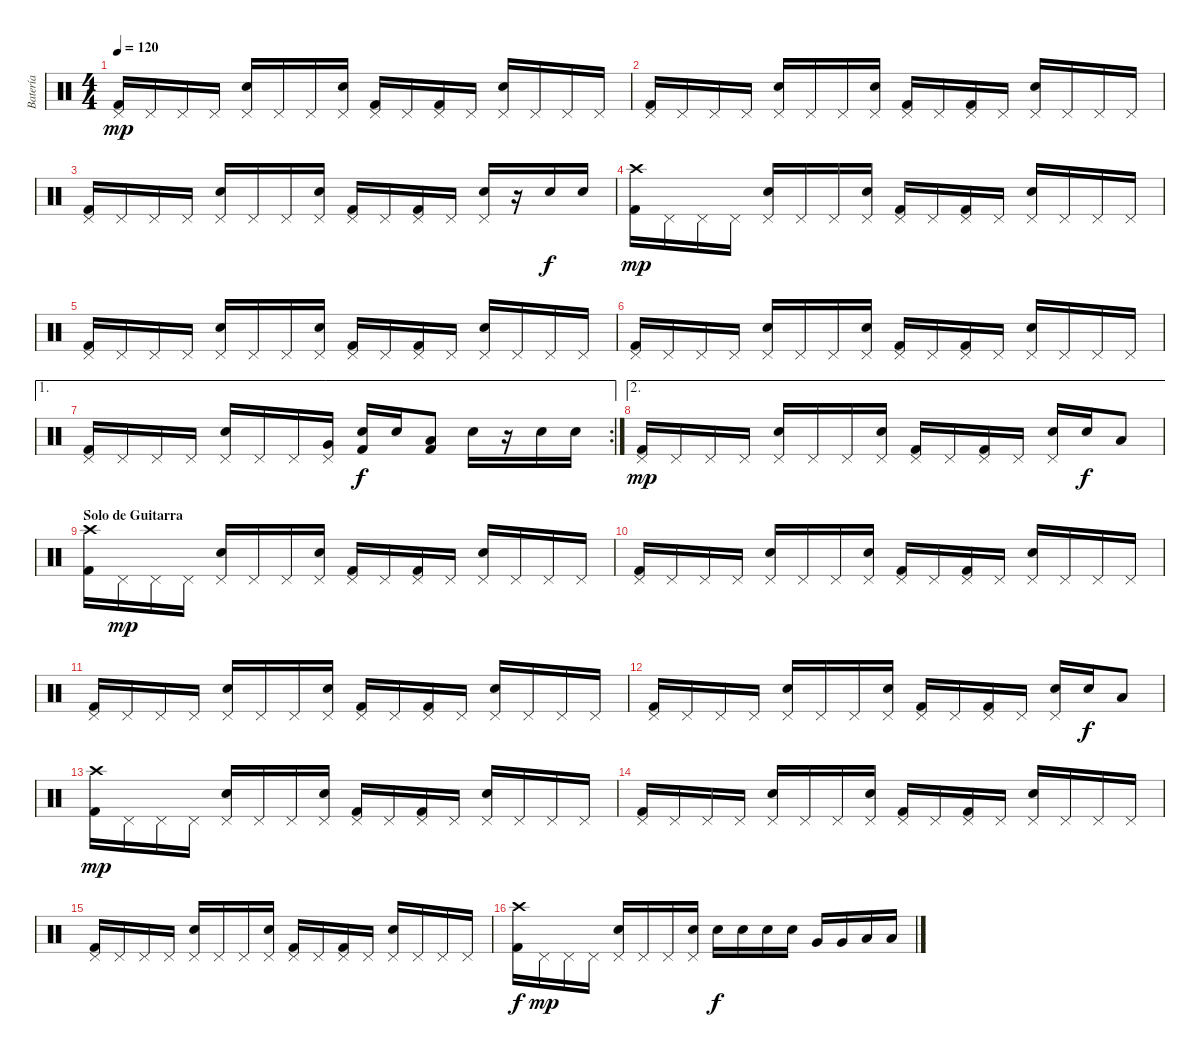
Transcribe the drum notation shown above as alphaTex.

\track ("Batería" "Batería") {instrument percussion}
\staff {score}
\articulation defaults
\ts (4 4)
\tempo 120
\clef neutral
\ks c
("Pedal Hi-Hat (hit)" "Kick (hit) 2").16{dy mp} "Pedal Hi-Hat (hit)".16 "Pedal Hi-Hat (hit)".16 "Pedal Hi-Hat (hit)".16 ("Pedal Hi-Hat (hit)" "Snare (hit) 2").16 "Pedal Hi-Hat (hit)".16 "Pedal Hi-Hat (hit)".16 ("Pedal Hi-Hat (hit)" "Snare (hit) 2").16 ("Pedal Hi-Hat (hit)" "Kick (hit) 2").16 "Pedal Hi-Hat (hit)".16 ("Pedal Hi-Hat (hit)" "Kick (hit) 2").16 "Pedal Hi-Hat (hit)".16 ("Pedal Hi-Hat (hit)" "Snare (hit) 2").16 "Pedal Hi-Hat (hit)".16 "Pedal Hi-Hat (hit)".16 "Pedal Hi-Hat (hit)".16 |
("Pedal Hi-Hat (hit)" "Kick (hit) 2").16 "Pedal Hi-Hat (hit)".16 "Pedal Hi-Hat (hit)".16 "Pedal Hi-Hat (hit)".16 ("Pedal Hi-Hat (hit)" "Snare (hit) 2").16 "Pedal Hi-Hat (hit)".16 "Pedal Hi-Hat (hit)".16 ("Pedal Hi-Hat (hit)" "Snare (hit) 2").16 ("Pedal Hi-Hat (hit)" "Kick (hit) 2").16 "Pedal Hi-Hat (hit)".16 ("Pedal Hi-Hat (hit)" "Kick (hit) 2").16 "Pedal Hi-Hat (hit)".16 ("Pedal Hi-Hat (hit)" "Snare (hit) 2").16 "Pedal Hi-Hat (hit)".16 "Pedal Hi-Hat (hit)".16 "Pedal Hi-Hat (hit)".16 |
("Pedal Hi-Hat (hit)" "Kick (hit) 2").16 "Pedal Hi-Hat (hit)".16 "Pedal Hi-Hat (hit)".16 "Pedal Hi-Hat (hit)".16 ("Pedal Hi-Hat (hit)" "Snare (hit) 2").16 "Pedal Hi-Hat (hit)".16 "Pedal Hi-Hat (hit)".16 ("Pedal Hi-Hat (hit)" "Snare (hit) 2").16 ("Pedal Hi-Hat (hit)" "Kick (hit) 2").16 "Pedal Hi-Hat (hit)".16 ("Pedal Hi-Hat (hit)" "Kick (hit) 2").16 "Pedal Hi-Hat (hit)".16 ("Pedal Hi-Hat (hit)" "Snare (hit) 2").16 r.16 "Snare (hit) 2".16{dy f} "Snare (hit) 2".16 |
("Crash high (hit)" "Kick (hit) 2").16{dy mp} "Pedal Hi-Hat (hit)".16 "Pedal Hi-Hat (hit)".16 "Pedal Hi-Hat (hit)".16 ("Pedal Hi-Hat (hit)" "Snare (hit) 2").16 "Pedal Hi-Hat (hit)".16 "Pedal Hi-Hat (hit)".16 ("Pedal Hi-Hat (hit)" "Snare (hit) 2").16 ("Pedal Hi-Hat (hit)" "Kick (hit) 2").16 "Pedal Hi-Hat (hit)".16 ("Pedal Hi-Hat (hit)" "Kick (hit) 2").16 "Pedal Hi-Hat (hit)".16 ("Pedal Hi-Hat (hit)" "Snare (hit) 2").16 "Pedal Hi-Hat (hit)".16 "Pedal Hi-Hat (hit)".16 "Pedal Hi-Hat (hit)".16 |
("Pedal Hi-Hat (hit)" "Kick (hit) 2").16 "Pedal Hi-Hat (hit)".16 "Pedal Hi-Hat (hit)".16 "Pedal Hi-Hat (hit)".16 ("Pedal Hi-Hat (hit)" "Snare (hit) 2").16 "Pedal Hi-Hat (hit)".16 "Pedal Hi-Hat (hit)".16 ("Pedal Hi-Hat (hit)" "Snare (hit) 2").16 ("Pedal Hi-Hat (hit)" "Kick (hit) 2").16 "Pedal Hi-Hat (hit)".16 ("Pedal Hi-Hat (hit)" "Kick (hit) 2").16 "Pedal Hi-Hat (hit)".16 ("Pedal Hi-Hat (hit)" "Snare (hit) 2").16 "Pedal Hi-Hat (hit)".16 "Pedal Hi-Hat (hit)".16 "Pedal Hi-Hat (hit)".16 |
("Pedal Hi-Hat (hit)" "Kick (hit) 2").16 "Pedal Hi-Hat (hit)".16 "Pedal Hi-Hat (hit)".16 "Pedal Hi-Hat (hit)".16 ("Pedal Hi-Hat (hit)" "Snare (hit) 2").16 "Pedal Hi-Hat (hit)".16 "Pedal Hi-Hat (hit)".16 ("Pedal Hi-Hat (hit)" "Snare (hit) 2").16 ("Pedal Hi-Hat (hit)" "Kick (hit) 2").16 "Pedal Hi-Hat (hit)".16 ("Pedal Hi-Hat (hit)" "Kick (hit) 2").16 "Pedal Hi-Hat (hit)".16 ("Pedal Hi-Hat (hit)" "Snare (hit) 2").16 "Pedal Hi-Hat (hit)".16 "Pedal Hi-Hat (hit)".16 "Pedal Hi-Hat (hit)".16 |
\ae 1
\rc 2
("Pedal Hi-Hat (hit)" "Kick (hit) 2").16 "Pedal Hi-Hat (hit)".16 "Pedal Hi-Hat (hit)".16 "Pedal Hi-Hat (hit)".16 ("Pedal Hi-Hat (hit)" "Snare (hit) 2").16 "Pedal Hi-Hat (hit)".16 "Pedal Hi-Hat (hit)".16 ("Pedal Hi-Hat (hit)" "Very Low Tom (hit)").16 ("Snare (hit) 2" "Kick (hit) 2").16{dy f} "Snare (hit) 2".16 ("Low Tom (hit)" "Kick (hit) 2").8 "Snare (hit) 2".16 r.16 "Snare (hit) 2".16 "Snare (hit) 2".16 |
\ae 2
("Pedal Hi-Hat (hit)" "Kick (hit) 2").16{dy mp} "Pedal Hi-Hat (hit)".16 "Pedal Hi-Hat (hit)".16 "Pedal Hi-Hat (hit)".16 ("Pedal Hi-Hat (hit)" "Snare (hit) 2").16 "Pedal Hi-Hat (hit)".16 "Pedal Hi-Hat (hit)".16 ("Pedal Hi-Hat (hit)" "Snare (hit) 2").16 ("Pedal Hi-Hat (hit)" "Kick (hit) 2").16 "Pedal Hi-Hat (hit)".16 ("Pedal Hi-Hat (hit)" "Kick (hit) 2").16 "Pedal Hi-Hat (hit)".16 ("Pedal Hi-Hat (hit)" "Snare (hit) 2").16 "Snare (hit) 2".16{dy f} "Low Tom (hit)".8 |
\section ("" "Solo de Guitarra")
("Crash high (hit)" "Kick (hit) 2").16 "Pedal Hi-Hat (hit)".16{dy mp} "Pedal Hi-Hat (hit)".16 "Pedal Hi-Hat (hit)".16 ("Pedal Hi-Hat (hit)" "Snare (hit) 2").16 "Pedal Hi-Hat (hit)".16 "Pedal Hi-Hat (hit)".16 ("Pedal Hi-Hat (hit)" "Snare (hit) 2").16 ("Pedal Hi-Hat (hit)" "Kick (hit) 2").16 "Pedal Hi-Hat (hit)".16 ("Pedal Hi-Hat (hit)" "Kick (hit) 2").16 "Pedal Hi-Hat (hit)".16 ("Pedal Hi-Hat (hit)" "Snare (hit) 2").16 "Pedal Hi-Hat (hit)".16 "Pedal Hi-Hat (hit)".16 "Pedal Hi-Hat (hit)".16 |
("Pedal Hi-Hat (hit)" "Kick (hit) 2").16 "Pedal Hi-Hat (hit)".16 "Pedal Hi-Hat (hit)".16 "Pedal Hi-Hat (hit)".16 ("Pedal Hi-Hat (hit)" "Snare (hit) 2").16 "Pedal Hi-Hat (hit)".16 "Pedal Hi-Hat (hit)".16 ("Pedal Hi-Hat (hit)" "Snare (hit) 2").16 ("Pedal Hi-Hat (hit)" "Kick (hit) 2").16 "Pedal Hi-Hat (hit)".16 ("Pedal Hi-Hat (hit)" "Kick (hit) 2").16 "Pedal Hi-Hat (hit)".16 ("Pedal Hi-Hat (hit)" "Snare (hit) 2").16 "Pedal Hi-Hat (hit)".16 "Pedal Hi-Hat (hit)".16 "Pedal Hi-Hat (hit)".16 |
("Pedal Hi-Hat (hit)" "Kick (hit) 2").16 "Pedal Hi-Hat (hit)".16 "Pedal Hi-Hat (hit)".16 "Pedal Hi-Hat (hit)".16 ("Pedal Hi-Hat (hit)" "Snare (hit) 2").16 "Pedal Hi-Hat (hit)".16 "Pedal Hi-Hat (hit)".16 ("Pedal Hi-Hat (hit)" "Snare (hit) 2").16 ("Pedal Hi-Hat (hit)" "Kick (hit) 2").16 "Pedal Hi-Hat (hit)".16 ("Pedal Hi-Hat (hit)" "Kick (hit) 2").16 "Pedal Hi-Hat (hit)".16 ("Pedal Hi-Hat (hit)" "Snare (hit) 2").16 "Pedal Hi-Hat (hit)".16 "Pedal Hi-Hat (hit)".16 "Pedal Hi-Hat (hit)".16 |
("Pedal Hi-Hat (hit)" "Kick (hit) 2").16 "Pedal Hi-Hat (hit)".16 "Pedal Hi-Hat (hit)".16 "Pedal Hi-Hat (hit)".16 ("Pedal Hi-Hat (hit)" "Snare (hit) 2").16 "Pedal Hi-Hat (hit)".16 "Pedal Hi-Hat (hit)".16 ("Pedal Hi-Hat (hit)" "Snare (hit) 2").16 ("Pedal Hi-Hat (hit)" "Kick (hit) 2").16 "Pedal Hi-Hat (hit)".16 ("Pedal Hi-Hat (hit)" "Kick (hit) 2").16 "Pedal Hi-Hat (hit)".16 ("Pedal Hi-Hat (hit)" "Snare (hit) 2").16 "Snare (hit) 2".16{dy f} "Low Tom (hit)".8 |
("Crash high (hit)" "Kick (hit) 2").16{dy mp} "Pedal Hi-Hat (hit)".16 "Pedal Hi-Hat (hit)".16 "Pedal Hi-Hat (hit)".16 ("Pedal Hi-Hat (hit)" "Snare (hit) 2").16 "Pedal Hi-Hat (hit)".16 "Pedal Hi-Hat (hit)".16 ("Pedal Hi-Hat (hit)" "Snare (hit) 2").16 ("Pedal Hi-Hat (hit)" "Kick (hit) 2").16 "Pedal Hi-Hat (hit)".16 ("Pedal Hi-Hat (hit)" "Kick (hit) 2").16 "Pedal Hi-Hat (hit)".16 ("Pedal Hi-Hat (hit)" "Snare (hit) 2").16 "Pedal Hi-Hat (hit)".16 "Pedal Hi-Hat (hit)".16 "Pedal Hi-Hat (hit)".16 |
("Pedal Hi-Hat (hit)" "Kick (hit) 2").16 "Pedal Hi-Hat (hit)".16 "Pedal Hi-Hat (hit)".16 "Pedal Hi-Hat (hit)".16 ("Pedal Hi-Hat (hit)" "Snare (hit) 2").16 "Pedal Hi-Hat (hit)".16 "Pedal Hi-Hat (hit)".16 ("Pedal Hi-Hat (hit)" "Snare (hit) 2").16 ("Pedal Hi-Hat (hit)" "Kick (hit) 2").16 "Pedal Hi-Hat (hit)".16 ("Pedal Hi-Hat (hit)" "Kick (hit) 2").16 "Pedal Hi-Hat (hit)".16 ("Pedal Hi-Hat (hit)" "Snare (hit) 2").16 "Pedal Hi-Hat (hit)".16 "Pedal Hi-Hat (hit)".16 "Pedal Hi-Hat (hit)".16 |
("Pedal Hi-Hat (hit)" "Kick (hit) 2").16 "Pedal Hi-Hat (hit)".16 "Pedal Hi-Hat (hit)".16 "Pedal Hi-Hat (hit)".16 ("Pedal Hi-Hat (hit)" "Snare (hit) 2").16 "Pedal Hi-Hat (hit)".16 "Pedal Hi-Hat (hit)".16 ("Pedal Hi-Hat (hit)" "Snare (hit) 2").16 ("Pedal Hi-Hat (hit)" "Kick (hit) 2").16 "Pedal Hi-Hat (hit)".16 ("Pedal Hi-Hat (hit)" "Kick (hit) 2").16 "Pedal Hi-Hat (hit)".16 ("Pedal Hi-Hat (hit)" "Snare (hit) 2").16 "Pedal Hi-Hat (hit)".16 "Pedal Hi-Hat (hit)".16 "Pedal Hi-Hat (hit)".16 |
("Crash high (hit)" "Kick (hit) 2").16{dy f} "Pedal Hi-Hat (hit)".16{dy mp} "Pedal Hi-Hat (hit)".16 "Pedal Hi-Hat (hit)".16 ("Pedal Hi-Hat (hit)" "Snare (hit) 2").16 "Pedal Hi-Hat (hit)".16 "Pedal Hi-Hat (hit)".16 ("Pedal Hi-Hat (hit)" "Snare (hit) 2").16 "Snare (hit) 2".16{dy f} "Snare (hit) 2".16 "Snare (hit) 2".16 "Snare (hit) 2".16 "Very Low Tom (hit)".16 "Very Low Tom (hit)".16 "Low Tom (hit)".16 "Low Tom (hit)".16
